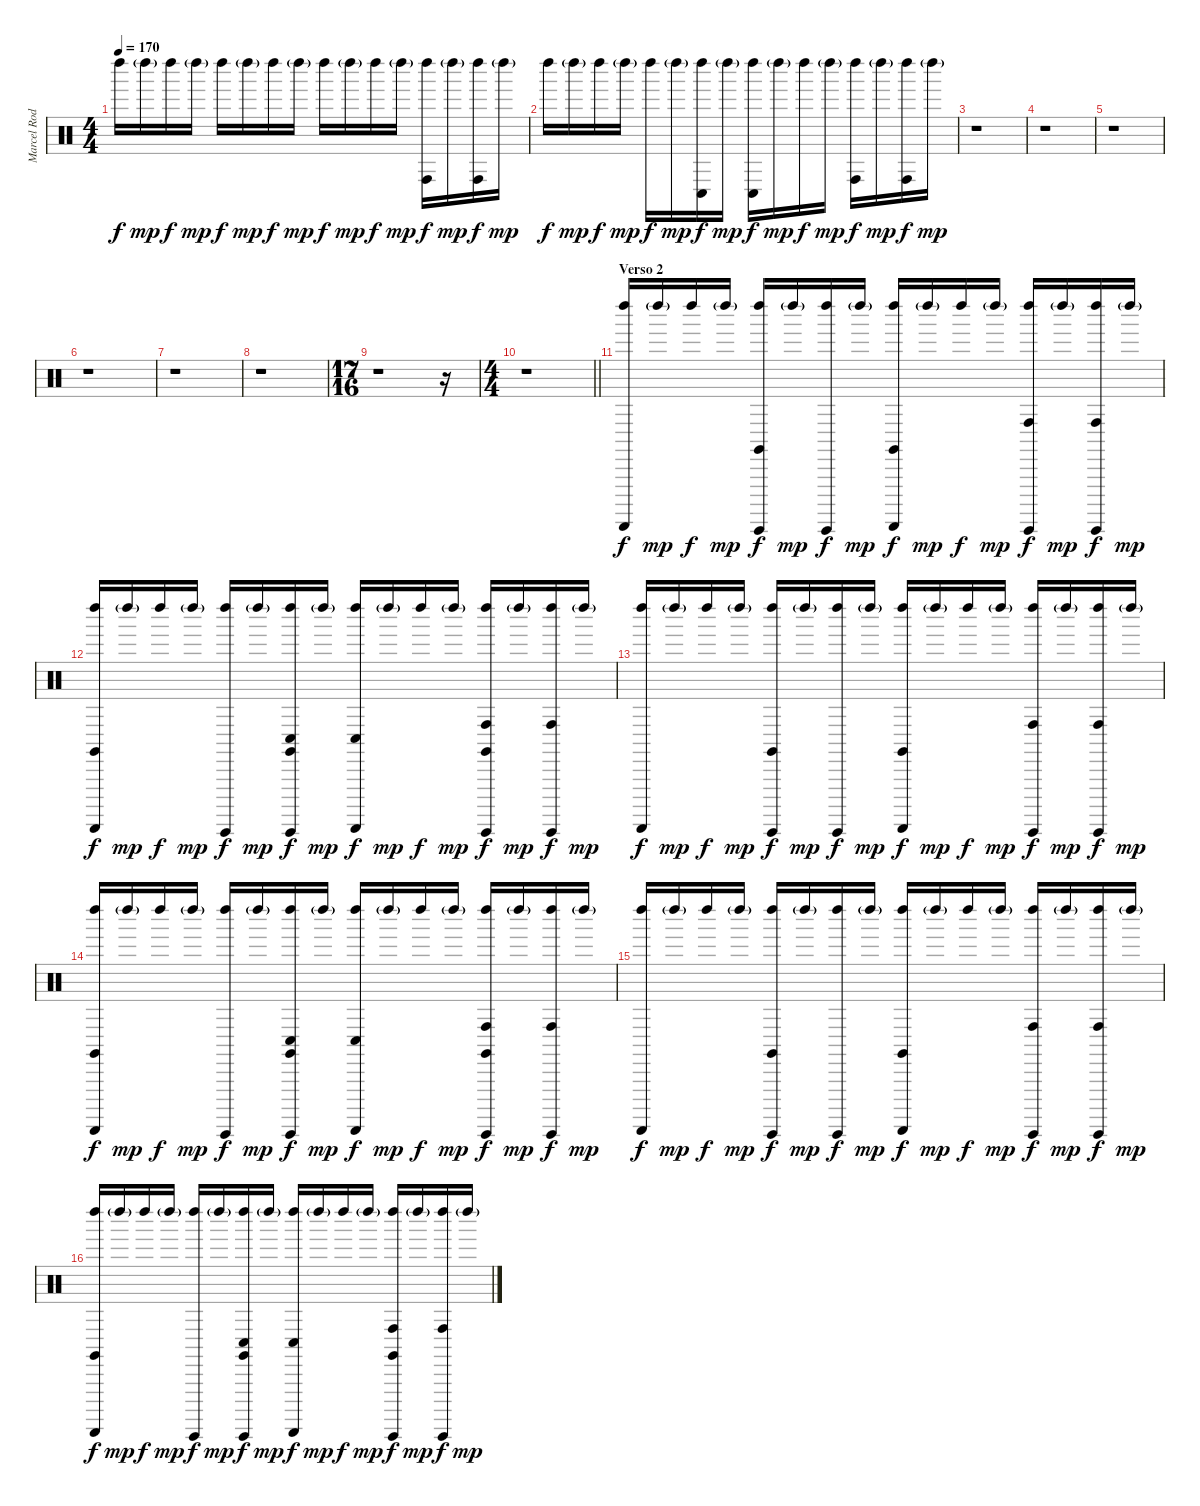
\track ("Marcel Rodriguez-Lopez/Adrian Terrazas [" "Marcel Rod") {instrument percussion}
\staff {score}
\articulation defaults
\ts (4 4)
\tempo 170
\clef neutral
\ks c "Left Maraca (hit)".16{dy f} "Left Maraca (hit)"{g}.16{dy mp} "Left Maraca (hit)".16{dy f} "Left Maraca (hit)"{g}.16{dy mp} "Left Maraca (hit)".16{dy f} "Left Maraca (hit)"{g}.16{dy mp} "Left Maraca (hit)".16{dy f} "Left Maraca (hit)"{g}.16{dy mp} "Left Maraca (hit)".16{dy f} "Left Maraca (hit)"{g}.16{dy mp} "Left Maraca (hit)".16{dy f} "Left Maraca (hit)"{g}.16{dy mp}
("Left Maraca (hit)" "Conga high (hit)").16{dy f} "Left Maraca (hit)"{g}.16{dy mp} ("Left Maraca (hit)" "Conga high (hit)").16{dy f} "Left Maraca (hit)"{g}.16{dy mp} |
"Left Maraca (hit)".16{dy f} "Left Maraca (hit)"{g}.16{dy mp} "Left Maraca (hit)".16{dy f} "Left Maraca (hit)"{g}.16{dy mp} "Left Maraca (hit)".16{dy f} "Left Maraca (hit)"{g}.16{dy mp} ("Left Maraca (hit)" "Conga low (hit)").16{dy f} "Left Maraca (hit)"{g}.16{dy mp} ("Left Maraca (hit)" "Conga low (hit)").16{dy f} "Left Maraca (hit)"{g}.16{dy mp} "Left Maraca (hit)".16{dy f} "Left Maraca (hit)"{g}.16{dy mp} ("Left Maraca (hit)" "Conga high (hit)").16{dy f} "Left Maraca (hit)"{g}.16{dy mp} ("Left Maraca (hit)" "Conga high (hit)").16{dy f} "Left Maraca (hit)"{g}.16{dy mp} |
r.1 |
r.1 |
r.1 |
r.1 |
r.1 |
r.1 |
\ts (17 16)
r.1 r.16 |
\ts (4 4)
\barLineRight lightlight
r.1 |
\section ("" "Verso 2")
("Guiro (scrap-return)" "Left Maraca (hit)").16{dy f} "Left Maraca (hit)"{g}.16{dy mp} "Left Maraca (hit)".16{dy f} "Left Maraca (hit)"{g}.16{dy mp} ("Guiro (hit)" "Left Maraca (hit)" "Claves (hit)").16{dy f} "Left Maraca (hit)"{g}.16{dy mp} ("Guiro (hit)" "Left Maraca (hit)").16{dy f} "Left Maraca (hit)"{g}.16{dy mp} ("Guiro (scrap-return)" "Left Maraca (hit)" "Claves (hit)").16{dy f} "Left Maraca (hit)"{g}.16{dy mp} "Left Maraca (hit)".16{dy f} "Left Maraca (hit)"{g}.16{dy mp} ("Guiro (hit)" "Left Maraca (hit)" "Conga high (hit)").16{dy f} "Left Maraca (hit)"{g}.16{dy mp} ("Guiro (hit)" "Left Maraca (hit)" "Conga high (hit)").16{dy f} "Left Maraca (hit)"{g}.16{dy mp} |
("Guiro (scrap-return)" "Left Maraca (hit)" "Claves (hit)").16{dy f} "Left Maraca (hit)"{g}.16{dy mp} "Left Maraca (hit)".16{dy f} "Left Maraca (hit)"{g}.16{dy mp} ("Guiro (hit)" "Left Maraca (hit)").16{dy f} "Left Maraca (hit)"{g}.16{dy mp} ("Guiro (hit)" "Left Maraca (hit)" "Claves (hit)" "Conga low (hit)").16{dy f} "Left Maraca (hit)"{g}.16{dy mp} ("Guiro (scrap-return)" "Left Maraca (hit)" "Conga low (hit)").16{dy f} "Left Maraca (hit)"{g}.16{dy mp} "Left Maraca (hit)".16{dy f} "Left Maraca (hit)"{g}.16{dy mp} ("Guiro (hit)" "Left Maraca (hit)" "Claves (hit)" "Conga high (hit)").16{dy f} "Left Maraca (hit)"{g}.16{dy mp} ("Guiro (hit)" "Left Maraca (hit)" "Conga high (hit)").16{dy f} "Left Maraca (hit)"{g}.16{dy mp} |
("Guiro (scrap-return)" "Left Maraca (hit)").16{dy f} "Left Maraca (hit)"{g}.16{dy mp} "Left Maraca (hit)".16{dy f} "Left Maraca (hit)"{g}.16{dy mp} ("Guiro (hit)" "Left Maraca (hit)" "Claves (hit)").16{dy f} "Left Maraca (hit)"{g}.16{dy mp} ("Guiro (hit)" "Left Maraca (hit)").16{dy f} "Left Maraca (hit)"{g}.16{dy mp} ("Guiro (scrap-return)" "Left Maraca (hit)" "Claves (hit)").16{dy f} "Left Maraca (hit)"{g}.16{dy mp} "Left Maraca (hit)".16{dy f} "Left Maraca (hit)"{g}.16{dy mp} ("Guiro (hit)" "Left Maraca (hit)" "Conga high (hit)").16{dy f} "Left Maraca (hit)"{g}.16{dy mp} ("Guiro (hit)" "Left Maraca (hit)" "Conga high (hit)").16{dy f} "Left Maraca (hit)"{g}.16{dy mp} |
("Guiro (scrap-return)" "Left Maraca (hit)" "Claves (hit)").16{dy f} "Left Maraca (hit)"{g}.16{dy mp} "Left Maraca (hit)".16{dy f} "Left Maraca (hit)"{g}.16{dy mp} ("Guiro (hit)" "Left Maraca (hit)").16{dy f} "Left Maraca (hit)"{g}.16{dy mp} ("Guiro (hit)" "Left Maraca (hit)" "Claves (hit)" "Conga low (hit)").16{dy f} "Left Maraca (hit)"{g}.16{dy mp} ("Guiro (scrap-return)" "Left Maraca (hit)" "Conga low (hit)").16{dy f} "Left Maraca (hit)"{g}.16{dy mp} "Left Maraca (hit)".16{dy f} "Left Maraca (hit)"{g}.16{dy mp} ("Guiro (hit)" "Left Maraca (hit)" "Claves (hit)" "Conga high (hit)").16{dy f} "Left Maraca (hit)"{g}.16{dy mp} ("Guiro (hit)" "Left Maraca (hit)" "Conga high (hit)").16{dy f} "Left Maraca (hit)"{g}.16{dy mp} |
("Guiro (scrap-return)" "Left Maraca (hit)").16{dy f} "Left Maraca (hit)"{g}.16{dy mp} "Left Maraca (hit)".16{dy f} "Left Maraca (hit)"{g}.16{dy mp} ("Guiro (hit)" "Left Maraca (hit)" "Claves (hit)").16{dy f} "Left Maraca (hit)"{g}.16{dy mp} ("Guiro (hit)" "Left Maraca (hit)").16{dy f} "Left Maraca (hit)"{g}.16{dy mp} ("Guiro (scrap-return)" "Left Maraca (hit)" "Claves (hit)").16{dy f} "Left Maraca (hit)"{g}.16{dy mp} "Left Maraca (hit)".16{dy f} "Left Maraca (hit)"{g}.16{dy mp} ("Guiro (hit)" "Left Maraca (hit)" "Conga high (hit)").16{dy f} "Left Maraca (hit)"{g}.16{dy mp} ("Guiro (hit)" "Left Maraca (hit)" "Conga high (hit)").16{dy f} "Left Maraca (hit)"{g}.16{dy mp} |
("Guiro (scrap-return)" "Left Maraca (hit)" "Claves (hit)").16{dy f} "Left Maraca (hit)"{g}.16{dy mp} "Left Maraca (hit)".16{dy f} "Left Maraca (hit)"{g}.16{dy mp} ("Guiro (hit)" "Left Maraca (hit)").16{dy f} "Left Maraca (hit)"{g}.16{dy mp} ("Guiro (hit)" "Left Maraca (hit)" "Claves (hit)" "Conga low (hit)").16{dy f} "Left Maraca (hit)"{g}.16{dy mp} ("Guiro (scrap-return)" "Left Maraca (hit)" "Conga low (hit)").16{dy f} "Left Maraca (hit)"{g}.16{dy mp} "Left Maraca (hit)".16{dy f} "Left Maraca (hit)"{g}.16{dy mp} ("Guiro (hit)" "Left Maraca (hit)" "Claves (hit)" "Conga high (hit)").16{dy f} "Left Maraca (hit)"{g}.16{dy mp} ("Guiro (hit)" "Left Maraca (hit)" "Conga high (hit)").16{dy f} "Left Maraca (hit)"{g}.16{dy mp}
